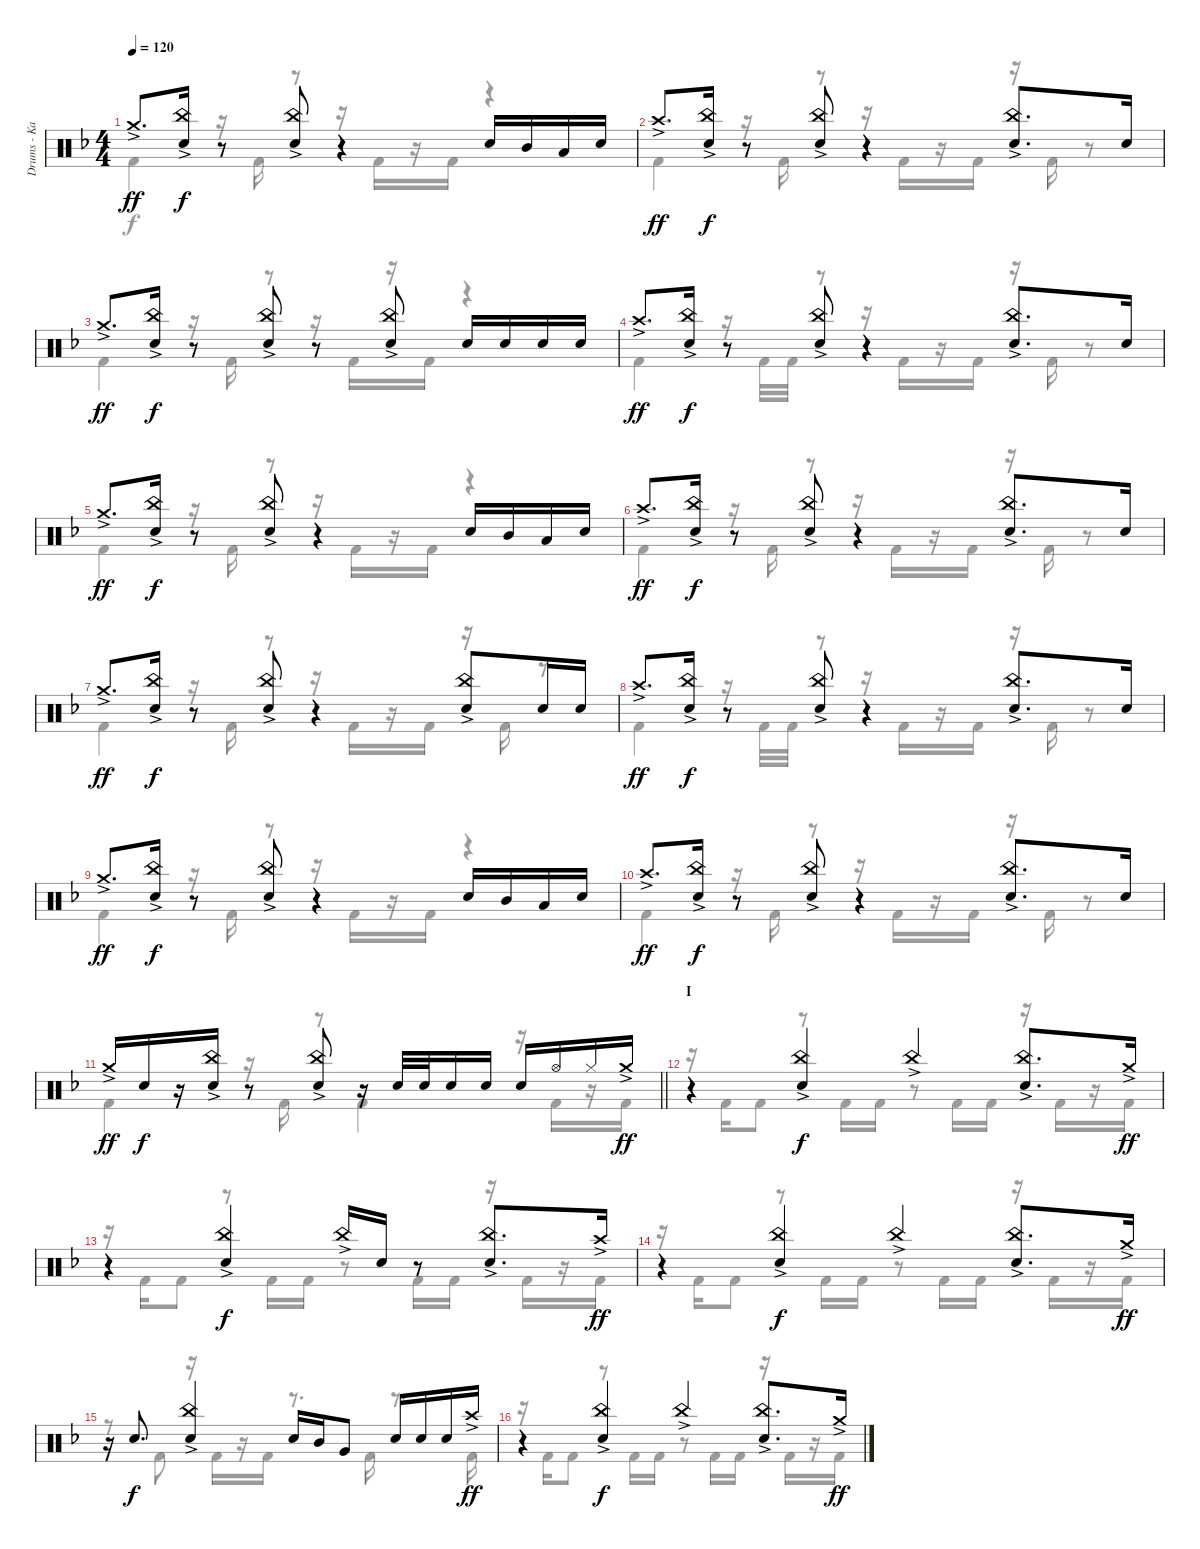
\track ("Drums - Kai" "Drums - Ka") {instrument percussion}
\staff {score}
\articulation defaults
\voice
\ts (4 4)
\tempo 120
\clef neutral
\ks f "Crash medium (hit)"{ac}.8{d dy ff}
("China (hit)"{ac} "Electric Snare (hit)").16{dy f} r.8 ("China (hit)"{ac} "Electric Snare (hit)").8 r.4 "Electric Snare (hit)".16 "Mid Tom (hit)".16 "Low Tom (hit)".16 "Electric Snare (hit)".16 |
"Crash high (hit)"{ac}.8{d dy ff} ("China (hit)"{ac} "Electric Snare (hit)").16{dy f} r.8 ("China (hit)"{ac} "Electric Snare (hit)").8 r.4 ("China (hit)"{ac} "Electric Snare (hit)").8{d} "Electric Snare (hit)".16 |
"Crash medium (hit)"{ac}.8{d dy ff} ("China (hit)"{ac} "Electric Snare (hit)").16{dy f} r.8 ("China (hit)"{ac} "Electric Snare (hit)").8 r.8 ("China (hit)"{ac} "Electric Snare (hit)").8 "Electric Snare (hit)".16 "Electric Snare (hit)".16 "Electric Snare (hit)".16 "Electric Snare (hit)".16 |
"Crash high (hit)"{ac}.8{d dy ff} ("China (hit)"{ac} "Electric Snare (hit)").16{dy f} r.8 ("China (hit)"{ac} "Electric Snare (hit)").8 r.4 ("China (hit)"{ac} "Electric Snare (hit)").8{d} "Electric Snare (hit)".16 |
"Crash medium (hit)"{ac}.8{d dy ff} ("China (hit)"{ac} "Electric Snare (hit)").16{dy f} r.8 ("China (hit)"{ac} "Electric Snare (hit)").8 r.4 "Electric Snare (hit)".16 "Mid Tom (hit)".16 "Low Tom (hit)".16 "Electric Snare (hit)".16 |
"Crash high (hit)"{ac}.8{d dy ff} ("China (hit)"{ac} "Electric Snare (hit)").16{dy f} r.8 ("China (hit)"{ac} "Electric Snare (hit)").8 r.4 ("China (hit)"{ac} "Electric Snare (hit)").8{d} "Electric Snare (hit)".16 |
"Crash medium (hit)"{ac}.8{d dy ff} ("China (hit)"{ac} "Electric Snare (hit)").16{dy f} r.8 ("China (hit)"{ac} "Electric Snare (hit)").8 r.4 ("China (hit)"{ac} "Electric Snare (hit)").8 "Electric Snare (hit)".16 "Electric Snare (hit)".16 |
"Crash high (hit)"{ac}.8{d dy ff} ("China (hit)"{ac} "Electric Snare (hit)").16{dy f} r.8 ("China (hit)"{ac} "Electric Snare (hit)").8 r.4 ("China (hit)"{ac} "Electric Snare (hit)").8{d} "Electric Snare (hit)".16 |
"Crash medium (hit)"{ac}.8{d dy ff} ("China (hit)"{ac} "Electric Snare (hit)").16{dy f} r.8 ("China (hit)"{ac} "Electric Snare (hit)").8 r.4 "Electric Snare (hit)".16 "Mid Tom (hit)".16 "Low Tom (hit)".16 "Electric Snare (hit)".16 |
"Crash high (hit)"{ac}.8{d dy ff} ("China (hit)"{ac} "Electric Snare (hit)").16{dy f} r.8 ("China (hit)"{ac} "Electric Snare (hit)").8 r.4 ("China (hit)"{ac} "Electric Snare (hit)").8{d} "Electric Snare (hit)".16 |
\barLineRight lightlight "Crash medium (hit)"{ac}.16{dy ff} "Electric Snare (hit)".16{dy f}
r.16 ("China (hit)"{ac} "Electric Snare (hit)").16 r.8 ("China (hit)"{ac} "Electric Snare (hit)").8 r.16 "Electric Snare (hit)".32 "Electric Snare (hit)".32 "Electric Snare (hit)".16 "Electric Snare (hit)".16 "Electric Snare (hit)".16 "Hi-Hat (open)".16 "Hi-Hat (closed)".16 "Crash medium (hit)"{ac}.16{dy ff} |
\section ("" "I")
r.4 ("China (hit)"{ac} "Electric Snare (hit)").4{dy f} "China (hit)"{ac}.4 ("China (hit)"{ac} "Electric Snare (hit)").8{d} "Crash medium (hit)"{ac}.16{dy ff} |
r.4 ("China (hit)"{ac} "Electric Snare (hit)").4{dy f} "China (hit)"{ac}.16 "Electric Snare (hit)".16 r.8 ("China (hit)"{ac} "Electric Snare (hit)").8{d} "Crash high (hit)"{ac}.16{dy ff} |
r.4 ("China (hit)"{ac} "Electric Snare (hit)").4{dy f} "China (hit)"{ac}.4 ("China (hit)"{ac} "Electric Snare (hit)").8{d} "Crash medium (hit)"{ac}.16{dy ff} |
r.16 "Electric Snare (hit)".8{d dy f} ("China (hit)"{ac} "Electric Snare (hit)").4 "Electric Snare (hit)".16 "Mid Tom (hit)".16 "Very Low Tom (hit)".8 "Electric Snare (hit)".16 "Electric Snare (hit)".16 "Electric Snare (hit)".16 "Crash high (hit)"{ac}.16{dy ff} |
r.4 ("China (hit)"{ac} "Electric Snare (hit)").4{dy f} "China (hit)"{ac}.4 ("China (hit)"{ac} "Electric Snare (hit)").8{d} "Crash medium (hit)"{ac}.16{dy ff}
\voice
\clef neutral
\ottava regular
\simile none
\ks f "Kick (hit) 2".4{dy f}
r.16 "Kick (hit) 2".16 r.8 r.16 "Kick (hit) 2".16 r.16 "Kick (hit) 2".16 r.4 |
"Kick (hit) 2".4 r.16 "Kick (hit) 2".16 r.8 r.16 "Kick (hit) 2".16 r.16 "Kick (hit) 2".16 r.16 "Kick (hit) 2".16 r.8 |
"Kick (hit) 2".4 r.16 "Kick (hit) 2".16 r.8 r.16 "Kick (hit) 2".16 r.16 "Kick (hit) 2".16 r.4 |
"Kick (hit) 2".4 r.16 "Kick (hit) 2".32 "Kick (hit) 2".32 r.8 r.16 "Kick (hit) 2".16 r.16 "Kick (hit) 2".16 r.16 "Kick (hit) 2".16 r.8 |
"Kick (hit) 2".4 r.16 "Kick (hit) 2".16 r.8 r.16 "Kick (hit) 2".16 r.16 "Kick (hit) 2".16 r.4 |
"Kick (hit) 2".4 r.16 "Kick (hit) 2".16 r.8 r.16 "Kick (hit) 2".16 r.16 "Kick (hit) 2".16 r.16 "Kick (hit) 2".16 r.8 |
"Kick (hit) 2".4 r.16 "Kick (hit) 2".16 r.8 r.16 "Kick (hit) 2".16 r.16 "Kick (hit) 2".16 r.16 "Kick (hit) 2".16 r.8 |
"Kick (hit) 2".4 r.16 "Kick (hit) 2".32 "Kick (hit) 2".32 r.8 r.16 "Kick (hit) 2".16 r.16 "Kick (hit) 2".16 r.16 "Kick (hit) 2".16 r.8 |
"Kick (hit) 2".4 r.16 "Kick (hit) 2".16 r.8 r.16 "Kick (hit) 2".16 r.16 "Kick (hit) 2".16 r.4 |
"Kick (hit) 2".4 r.16 "Kick (hit) 2".16 r.8 r.16 "Kick (hit) 2".16 r.16 "Kick (hit) 2".16 r.16 "Kick (hit) 2".16 r.8 |
\barLineRight lightlight "Kick (hit) 2".4
r.16 "Kick (hit) 2".16 r.8 "Kick (hit) 2".4 r.16 "Kick (hit) 2".16 r.16 "Kick (hit) 2".16 |
r.16 "Kick (hit) 2".16 "Kick (hit) 2".8 r.8 "Kick (hit) 2".16 "Kick (hit) 2".16 r.8 "Kick (hit) 2".16 "Kick (hit) 2".16 r.16 "Kick (hit) 2".16 r.16 "Kick (hit) 2".16 |
r.16 "Kick (hit) 2".16 "Kick (hit) 2".8 r.8 "Kick (hit) 2".16 "Kick (hit) 2".16 r.8 "Kick (hit) 2".16 "Kick (hit) 2".16 r.16 "Kick (hit) 2".16 r.16 "Kick (hit) 2".16 |
r.16 "Kick (hit) 2".16 "Kick (hit) 2".8 r.8 "Kick (hit) 2".16 "Kick (hit) 2".16 r.8 "Kick (hit) 2".16 "Kick (hit) 2".16 r.16 "Kick (hit) 2".16 r.16 "Kick (hit) 2".16 |
r.8 "Kick (hit) 2".8 r.16 "Kick (hit) 2".16 r.16 "Kick (hit) 2".16 r.8{d} "Kick (hit) 2".16 r.8{d} "Kick (hit) 2".16 |
r.16 "Kick (hit) 2".16 "Kick (hit) 2".8 r.8 "Kick (hit) 2".16 "Kick (hit) 2".16 r.8 "Kick (hit) 2".16 "Kick (hit) 2".16 r.16 "Kick (hit) 2".16 r.16 "Kick (hit) 2".16
